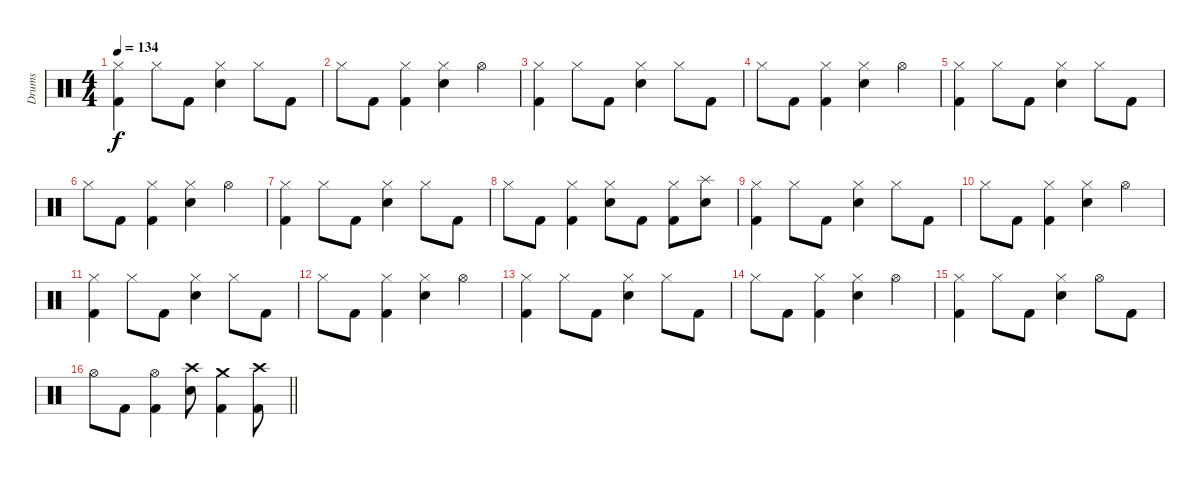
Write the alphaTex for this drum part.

\track ("Drums" "Drums") {instrument percussion}
\staff {score}
\articulation defaults
\ts (4 4)
\tempo 134
\clef neutral
\ks c
("Hi-Hat (closed)" "Kick (hit) 2").4{dy f} "Hi-Hat (closed)".8 "Kick (hit) 2".8 ("Hi-Hat (closed)" "Snare (hit) 2").4 "Hi-Hat (closed)".8 "Kick (hit) 2".8 |
"Hi-Hat (closed)".8 "Kick (hit) 2".8 ("Hi-Hat (closed)" "Kick (hit) 2").4 ("Hi-Hat (closed)" "Snare (hit) 2").4 "Hi-Hat (open)".4 |
("Hi-Hat (closed)" "Kick (hit) 2").4 "Hi-Hat (closed)".8 "Kick (hit) 2".8 ("Hi-Hat (closed)" "Snare (hit) 2").4 "Hi-Hat (closed)".8 "Kick (hit) 2".8 |
"Hi-Hat (closed)".8 "Kick (hit) 2".8 ("Hi-Hat (closed)" "Kick (hit) 2").4 ("Hi-Hat (closed)" "Snare (hit) 2").4 "Hi-Hat (open)".4 |
("Hi-Hat (closed)" "Kick (hit) 2").4 "Hi-Hat (closed)".8 "Kick (hit) 2".8 ("Hi-Hat (closed)" "Snare (hit) 2").4 "Hi-Hat (closed)".8 "Kick (hit) 2".8 |
"Hi-Hat (closed)".8 "Kick (hit) 2".8 ("Hi-Hat (closed)" "Kick (hit) 2").4 ("Hi-Hat (closed)" "Snare (hit) 2").4 "Hi-Hat (open)".4 |
("Hi-Hat (closed)" "Kick (hit) 2").4 "Hi-Hat (closed)".8 "Kick (hit) 2".8 ("Hi-Hat (closed)" "Snare (hit) 2").4 "Hi-Hat (closed)".8 "Kick (hit) 2".8 |
"Hi-Hat (closed)".8 "Kick (hit) 2".8 ("Hi-Hat (closed)" "Kick (hit) 2").4 ("Hi-Hat (closed)" "Snare (hit) 2").8 "Kick (hit) 2".8 ("Hi-Hat (closed)" "Kick (hit) 2").8 ("Splash (hit)" "Snare (hit) 2").8 |
("Hi-Hat (closed)" "Kick (hit) 2").4 "Hi-Hat (closed)".8 "Kick (hit) 2".8 ("Hi-Hat (closed)" "Snare (hit) 2").4 "Hi-Hat (closed)".8 "Kick (hit) 2".8 |
"Hi-Hat (closed)".8 "Kick (hit) 2".8 ("Hi-Hat (closed)" "Kick (hit) 2").4 ("Hi-Hat (closed)" "Snare (hit) 2").4 "Hi-Hat (open)".4 |
("Hi-Hat (closed)" "Kick (hit) 2").4 "Hi-Hat (closed)".8 "Kick (hit) 2".8 ("Hi-Hat (closed)" "Snare (hit) 2").4 "Hi-Hat (closed)".8 "Kick (hit) 2".8 |
"Hi-Hat (closed)".8 "Kick (hit) 2".8 ("Hi-Hat (closed)" "Kick (hit) 2").4 ("Hi-Hat (closed)" "Snare (hit) 2").4 "Hi-Hat (open)".4 |
("Hi-Hat (closed)" "Kick (hit) 2").4 "Hi-Hat (closed)".8 "Kick (hit) 2".8 ("Hi-Hat (closed)" "Snare (hit) 2").4 "Hi-Hat (closed)".8 "Kick (hit) 2".8 |
"Hi-Hat (closed)".8 "Kick (hit) 2".8 ("Hi-Hat (closed)" "Kick (hit) 2").4 ("Hi-Hat (closed)" "Snare (hit) 2").4 "Hi-Hat (open)".4 |
("Hi-Hat (closed)" "Kick (hit) 2").4 "Hi-Hat (closed)".8 "Kick (hit) 2".8 ("Hi-Hat (closed)" "Snare (hit) 2").4 "Hi-Hat (open)".8 "Kick (hit) 2".8 |
\barLineRight lightlight "Hi-Hat (open)".8 "Kick (hit) 2".8
("Hi-Hat (open)" "Kick (hit) 2").4 ("Crash high (hit)" "Snare (hit) 2").8 ("Crash medium (hit)" "Kick (hit) 2").4 ("Crash high (hit)" "Kick (hit) 2").8
